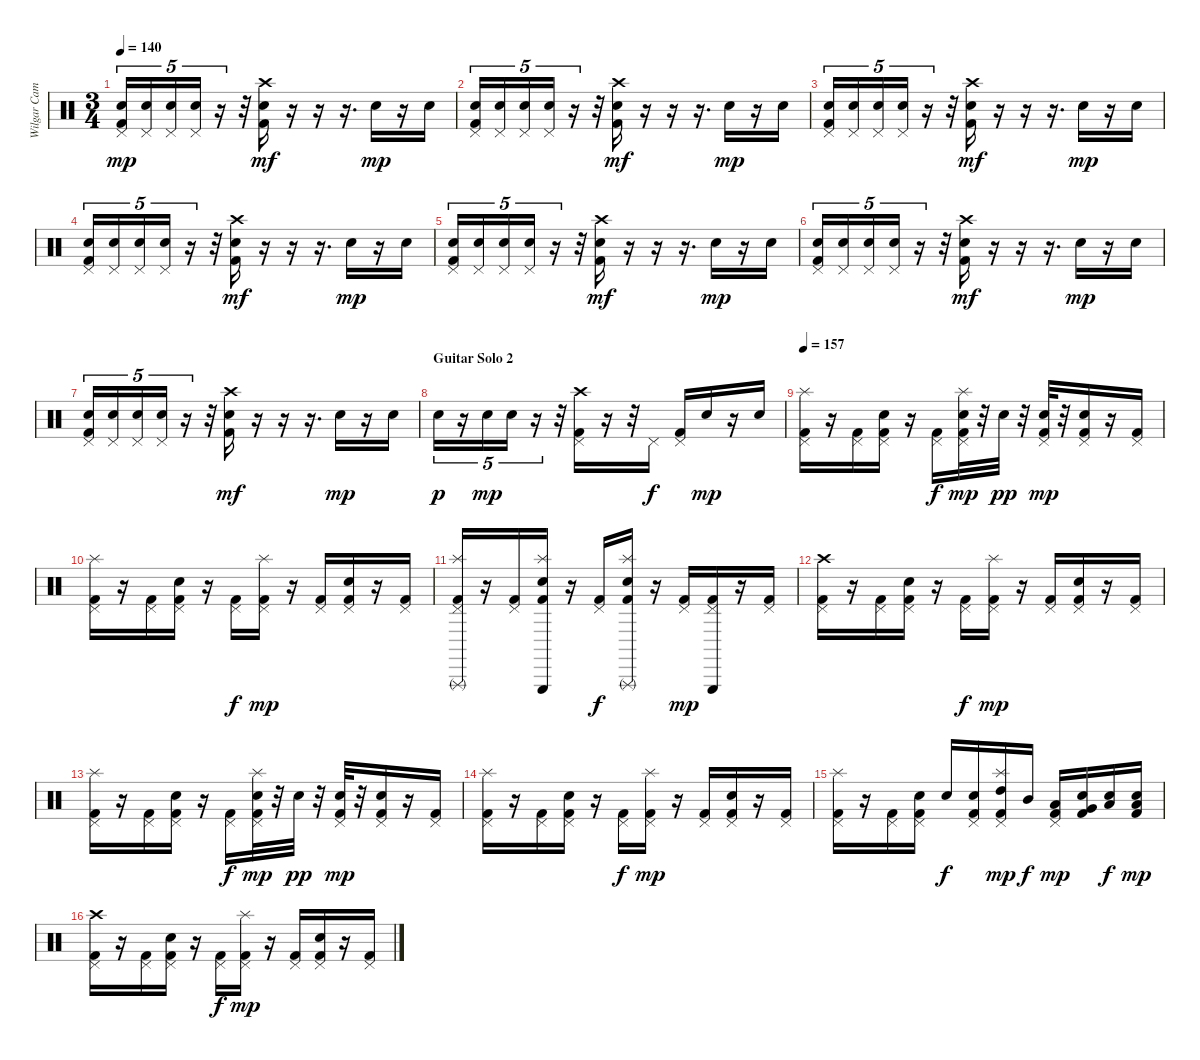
\track ("Wilgar Campbell" "Wilgar Cam") {instrument percussion}
\staff {score}
\articulation defaults
\ts (3 4)
\tempo 140
\clef neutral
\ks c
("Snare (hit) 2" "Pedal Hi-Hat (hit)" "Kick (hit) 2").16{tu (5 4) dy mp} ("Snare (hit) 2" "Pedal Hi-Hat (hit)").16{tu (5 4)} ("Snare (hit) 2" "Pedal Hi-Hat (hit)").16{tu (5 4)} ("Snare (hit) 2" "Pedal Hi-Hat (hit)").16{tu (5 4)} r.16{tu (5 4)} r.32 ("Crash high (hit)" "Snare (hit) 2" "Kick (hit) 2").16{dy mf} r.16 r.16 r.16{d} "Electric Snare (hit)".16{dy mp} r.16 "Electric Snare (hit)".16 |
("Snare (hit) 2" "Pedal Hi-Hat (hit)" "Kick (hit) 2").16{tu (5 4)} ("Snare (hit) 2" "Pedal Hi-Hat (hit)").16{tu (5 4)} ("Snare (hit) 2" "Pedal Hi-Hat (hit)").16{tu (5 4)} ("Snare (hit) 2" "Pedal Hi-Hat (hit)").16{tu (5 4)} r.16{tu (5 4)} r.32 ("Crash high (hit)" "Snare (hit) 2" "Kick (hit) 2").16{dy mf} r.16 r.16 r.16{d} "Electric Snare (hit)".16{dy mp} r.16 "Electric Snare (hit)".16 |
("Snare (hit) 2" "Pedal Hi-Hat (hit)" "Kick (hit) 2").16{tu (5 4)} ("Snare (hit) 2" "Pedal Hi-Hat (hit)").16{tu (5 4)} ("Snare (hit) 2" "Pedal Hi-Hat (hit)").16{tu (5 4)} ("Snare (hit) 2" "Pedal Hi-Hat (hit)").16{tu (5 4)} r.16{tu (5 4)} r.32 ("Crash high (hit)" "Snare (hit) 2" "Kick (hit) 2").16{dy mf} r.16 r.16 r.16{d} "Electric Snare (hit)".16{dy mp} r.16 "Electric Snare (hit)".16 |
("Snare (hit) 2" "Pedal Hi-Hat (hit)" "Kick (hit) 2").16{tu (5 4)} ("Snare (hit) 2" "Pedal Hi-Hat (hit)").16{tu (5 4)} ("Snare (hit) 2" "Pedal Hi-Hat (hit)").16{tu (5 4)} ("Snare (hit) 2" "Pedal Hi-Hat (hit)").16{tu (5 4)} r.16{tu (5 4)} r.32 ("Crash high (hit)" "Snare (hit) 2" "Kick (hit) 2").16{dy mf} r.16 r.16 r.16{d} "Electric Snare (hit)".16{dy mp} r.16 "Electric Snare (hit)".16 |
("Snare (hit) 2" "Pedal Hi-Hat (hit)" "Kick (hit) 2").16{tu (5 4)} ("Snare (hit) 2" "Pedal Hi-Hat (hit)").16{tu (5 4)} ("Snare (hit) 2" "Pedal Hi-Hat (hit)").16{tu (5 4)} ("Snare (hit) 2" "Pedal Hi-Hat (hit)").16{tu (5 4)} r.16{tu (5 4)} r.32 ("Crash high (hit)" "Snare (hit) 2" "Kick (hit) 2").16{dy mf} r.16 r.16 r.16{d} "Electric Snare (hit)".16{dy mp} r.16 "Electric Snare (hit)".16 |
("Snare (hit) 2" "Pedal Hi-Hat (hit)" "Kick (hit) 2").16{tu (5 4)} ("Snare (hit) 2" "Pedal Hi-Hat (hit)").16{tu (5 4)} ("Snare (hit) 2" "Pedal Hi-Hat (hit)").16{tu (5 4)} ("Snare (hit) 2" "Pedal Hi-Hat (hit)").16{tu (5 4)} r.16{tu (5 4)} r.32 ("Crash high (hit)" "Snare (hit) 2" "Kick (hit) 2").16{dy mf} r.16 r.16 r.16{d} "Electric Snare (hit)".16{dy mp} r.16 "Electric Snare (hit)".16 |
("Snare (hit) 2" "Pedal Hi-Hat (hit)" "Kick (hit) 2").16{tu (5 4)} ("Snare (hit) 2" "Pedal Hi-Hat (hit)").16{tu (5 4)} ("Snare (hit) 2" "Pedal Hi-Hat (hit)").16{tu (5 4)} ("Snare (hit) 2" "Pedal Hi-Hat (hit)").16{tu (5 4)} r.16{tu (5 4)} r.32 ("Crash high (hit)" "Snare (hit) 2" "Kick (hit) 2").16{dy mf} r.16 r.16 r.16{d} "Electric Snare (hit)".16{dy mp} r.16 "Electric Snare (hit)".16 |
\section ("" "Guitar Solo 2")
"Electric Snare (hit)".16{tu (5 4) dy p} r.16{tu (5 4)} "Electric Snare (hit)".16{tu (5 4) dy mp} "Electric Snare (hit)".16{tu (5 4)} r.16{tu (5 4)} r.32 ("Crash high (hit)" "Pedal Hi-Hat (hit)" "Kick (hit) 2").16 r.16 r.32 "Pedal Hi-Hat (hit)".16{dy f} ("Pedal Hi-Hat (hit)" "Kick (hit) 2").16 "Electric Snare (hit)".16{dy mp} r.16 "Electric Snare (hit)".16 |
\tempo 157
("Splash (hit)" "Pedal Hi-Hat (hit)" "Kick (hit) 2").16 r.16 ("Pedal Hi-Hat (hit)" "Kick (hit) 2").16 ("Snare (hit) 2" "Pedal Hi-Hat (hit)" "Kick (hit) 2").16 r.16 ("Pedal Hi-Hat (hit)" "Kick (hit) 2").16{dy f} ("Splash (hit)" "Pedal Hi-Hat (hit)" "Electric Snare (hit)" "Kick (hit) 2").32{dy mp} r.32 "Electric Snare (hit)".32{dy pp} r.32 ("Pedal Hi-Hat (hit)" "Electric Snare (hit)" "Kick (hit) 2").32{dy mp} r.32 ("Snare (hit) 2" "Pedal Hi-Hat (hit)" "Kick (hit) 2").16 r.16 ("Pedal Hi-Hat (hit)" "Kick (hit) 2").16 |
("Splash (hit)" "Pedal Hi-Hat (hit)" "Kick (hit) 2").16 r.16 ("Pedal Hi-Hat (hit)" "Kick (hit) 2").16 ("Snare (hit) 2" "Pedal Hi-Hat (hit)" "Kick (hit) 2").16 r.16 ("Pedal Hi-Hat (hit)" "Kick (hit) 2").16{dy f} ("Splash (hit)" "Pedal Hi-Hat (hit)" "Kick (hit) 2").16{dy mp} r.16 ("Pedal Hi-Hat (hit)" "Kick (hit) 2").16 ("Snare (hit) 2" "Pedal Hi-Hat (hit)" "Kick (hit) 2").16 r.16 ("Pedal Hi-Hat (hit)" "Kick (hit) 2").16 |
("Splash (hit)" "Triangle (rnute)" "Pedal Hi-Hat (hit)" "Kick (hit) 2").16 r.16 ("Pedal Hi-Hat (hit)" "Kick (hit) 2").16 ("Snare (hit) 2" "Splash (hit)" "Triangle (hit)" "Kick (hit) 2").16 r.16 ("Pedal Hi-Hat (hit)" "Kick (hit) 2").16{dy f} ("Splash (hit)" "Snare (hit) 2" "Triangle (rnute)" "Kick (hit) 2").16 r.16 ("Pedal Hi-Hat (hit)" "Kick (hit) 2").16{dy mp} ("Pedal Hi-Hat (hit)" "Triangle (hit)" "Kick (hit) 2").16 r.16 ("Pedal Hi-Hat (hit)" "Kick (hit) 2").16 |
("Crash high (hit)" "Pedal Hi-Hat (hit)" "Kick (hit) 2").16 r.16 ("Pedal Hi-Hat (hit)" "Kick (hit) 2").16 ("Snare (hit) 2" "Pedal Hi-Hat (hit)" "Kick (hit) 2").16 r.16 ("Pedal Hi-Hat (hit)" "Kick (hit) 2").16{dy f} ("Splash (hit)" "Pedal Hi-Hat (hit)" "Kick (hit) 2").16{dy mp} r.16 ("Pedal Hi-Hat (hit)" "Kick (hit) 2").16 ("Snare (hit) 2" "Pedal Hi-Hat (hit)" "Kick (hit) 2").16 r.16 ("Pedal Hi-Hat (hit)" "Kick (hit) 2").16 |
("Splash (hit)" "Pedal Hi-Hat (hit)" "Kick (hit) 2").16 r.16 ("Pedal Hi-Hat (hit)" "Kick (hit) 2").16 ("Snare (hit) 2" "Pedal Hi-Hat (hit)" "Kick (hit) 2").16 r.16 ("Pedal Hi-Hat (hit)" "Kick (hit) 2").16{dy f} ("Splash (hit)" "Pedal Hi-Hat (hit)" "Electric Snare (hit)" "Kick (hit) 2").32{dy mp} r.32 "Electric Snare (hit)".32{dy pp} r.32 ("Pedal Hi-Hat (hit)" "Electric Snare (hit)" "Kick (hit) 2").32{dy mp} r.32 ("Snare (hit) 2" "Pedal Hi-Hat (hit)" "Kick (hit) 2").16 r.16 ("Pedal Hi-Hat (hit)" "Kick (hit) 2").16 |
("Splash (hit)" "Pedal Hi-Hat (hit)" "Kick (hit) 2").16 r.16 ("Pedal Hi-Hat (hit)" "Kick (hit) 2").16 ("Snare (hit) 2" "Pedal Hi-Hat (hit)" "Kick (hit) 2").16 r.16 ("Pedal Hi-Hat (hit)" "Kick (hit) 2").16{dy f} ("Splash (hit)" "Pedal Hi-Hat (hit)" "Kick (hit) 2").16{dy mp} r.16 ("Pedal Hi-Hat (hit)" "Kick (hit) 2").16 ("Snare (hit) 2" "Pedal Hi-Hat (hit)" "Kick (hit) 2").16 r.16 ("Pedal Hi-Hat (hit)" "Kick (hit) 2").16 |
("Splash (hit)" "Pedal Hi-Hat (hit)" "Kick (hit) 2").16 r.16 ("Pedal Hi-Hat (hit)" "Kick (hit) 2").16 ("Electric Snare (hit)" "Pedal Hi-Hat (hit)" "Kick (hit) 2").16 "Electric Snare (hit)".16{dy f} ("Snare (hit) 2" "Pedal Hi-Hat (hit)" "Kick (hit) 2").16 ("Splash (hit)" "High Tom (hit)" "Pedal Hi-Hat (hit)" "Kick (hit) 2").16{dy mp} "Mid Tom (hit)".16{dy f} ("Low Tom (hit)" "Pedal Hi-Hat (hit)" "Kick (hit) 2").16{dy mp} ("Very Low Tom (hit)" "Snare (hit) 2" "Kick (hit) 2").16 ("Low Tom (hit)" "Snare (hit) 2").16{dy f} ("Low Floor Tom (hit)" "Snare (hit) 2" "Kick (hit) 2").16{dy mp} |
("Crash high (hit)" "Pedal Hi-Hat (hit)" "Kick (hit) 2").16 r.16 ("Pedal Hi-Hat (hit)" "Kick (hit) 2").16 ("Snare (hit) 2" "Pedal Hi-Hat (hit)" "Kick (hit) 2").16 r.16 ("Pedal Hi-Hat (hit)" "Kick (hit) 2").16{dy f} ("Splash (hit)" "Pedal Hi-Hat (hit)" "Kick (hit) 2").16{dy mp} r.16 ("Pedal Hi-Hat (hit)" "Kick (hit) 2").16 ("Snare (hit) 2" "Pedal Hi-Hat (hit)" "Kick (hit) 2").16 r.16 ("Pedal Hi-Hat (hit)" "Kick (hit) 2").16
